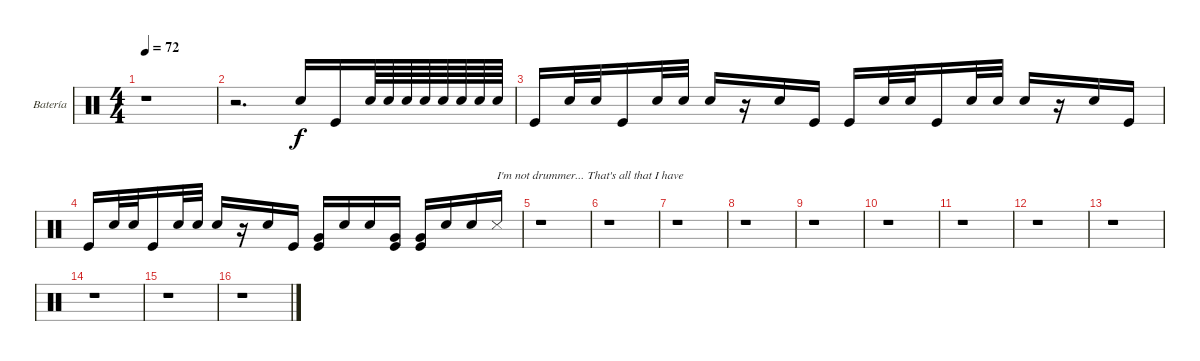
\defaultSystemsLayout 4
\bracketExtendMode groupsimilarinstruments
\firstSystemTrackNameOrientation horizontal
\otherSystemsTrackNameOrientation horizontal
\track ("Batería" "Batería") {instrument percussion}
\staff {score}
\articulation defaults
\ts (4 4)
\tempo 72
\clef neutral
\scale
0.474178
\ks c
r.1{dy f} |
\scale
0.262911 r.2{d} "Snare (hit) 2".16 "Kick (hit)".16 "Snare (hit) 2".64 "Snare (hit) 2".64 "Snare (hit) 2".64 "Snare (hit) 2".64 "Snare (hit) 2".64 "Snare (hit) 2".64 "Snare (hit) 2".64 "Snare (hit) 2".64 |
\scale
0.262911 "Kick (hit)".16 "Snare (hit) 2".32 "Snare (hit) 2".32 "Kick (hit)".16 "Snare (hit) 2".32 "Snare (hit) 2".32 "Snare (hit) 2".16 r.16 "Snare (hit) 2".16 "Kick (hit)".16 "Kick (hit)".16 "Snare (hit) 2".32 "Snare (hit) 2".32 "Kick (hit)".16 "Snare (hit) 2".32 "Snare (hit) 2".32 "Snare (hit) 2".16 r.16 "Snare (hit) 2".16 "Kick (hit)".16 |
\scale
0.333333 "Kick (hit)".16 "Snare (hit) 2".32 "Snare (hit) 2".32 "Kick (hit)".16 "Snare (hit) 2".32 "Snare (hit) 2".32 "Snare (hit) 2".16 r.16 "Snare (hit) 2".16 "Kick (hit)".16 ("Very Low Tom (hit)" "Kick (hit)").16 "Snare (hit) 2".16 "Snare (hit) 2".16 ("Very Low Tom (hit)" "Kick (hit)").16 ("Very Low Tom (hit)" "Kick (hit)").16 "Snare (hit) 2".16 "Snare (hit) 2".16 "Snare (side stick) 3".16{txt "I'm not drummer... That's all that I have"} |
\scale
0.515532
\scale
0.333333 r.1 |
\scale
0.484442
\scale
0.333333 r.1 |
\scale
0.333333 r.1 |
\scale
0.333333 r.1 |
\scale
0.333333 r.1 |
\scale
0.333333 r.1 |
\scale
0.333333 r.1 |
\scale
0.333333 r.1 |
\scale
0.333333 r.1 |
\scale
0.333333 r.1 |
\scale
0.333333 r.1 |
\scale
0.333333 r.1
